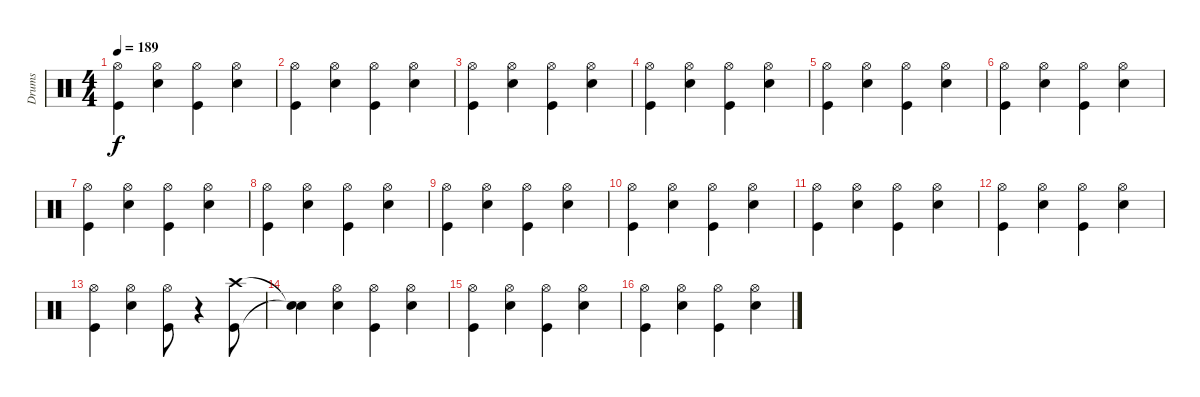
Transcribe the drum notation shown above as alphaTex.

\track ("Drums" "Drums") {instrument percussion}
\staff {score}
\articulation defaults
\ts (4 4)
\tempo 189
\clef neutral
\ks c
("Kick (hit)" "Hi-Hat (open)").4{dy f} ("Snare (hit) 2" "Hi-Hat (open)").4 ("Kick (hit)" "Hi-Hat (open)").4 ("Snare (hit) 2" "Hi-Hat (open)").4 |
("Kick (hit)" "Hi-Hat (open)").4 ("Snare (hit) 2" "Hi-Hat (open)").4 ("Kick (hit)" "Hi-Hat (open)").4 ("Snare (hit) 2" "Hi-Hat (open)").4 |
("Kick (hit)" "Hi-Hat (open)").4 ("Snare (hit) 2" "Hi-Hat (open)").4 ("Kick (hit)" "Hi-Hat (open)").4 ("Snare (hit) 2" "Hi-Hat (open)").4 |
("Kick (hit)" "Hi-Hat (open)").4 ("Snare (hit) 2" "Hi-Hat (open)").4 ("Kick (hit)" "Hi-Hat (open)").4 ("Snare (hit) 2" "Hi-Hat (open)").4 |
("Kick (hit)" "Hi-Hat (open)").4 ("Snare (hit) 2" "Hi-Hat (open)").4 ("Kick (hit)" "Hi-Hat (open)").4 ("Snare (hit) 2" "Hi-Hat (open)").4 |
("Kick (hit)" "Hi-Hat (open)").4 ("Snare (hit) 2" "Hi-Hat (open)").4 ("Kick (hit)" "Hi-Hat (open)").4 ("Snare (hit) 2" "Hi-Hat (open)").4 |
("Kick (hit)" "Hi-Hat (open)").4 ("Snare (hit) 2" "Hi-Hat (open)").4 ("Kick (hit)" "Hi-Hat (open)").4 ("Snare (hit) 2" "Hi-Hat (open)").4 |
("Kick (hit)" "Hi-Hat (open)").4 ("Snare (hit) 2" "Hi-Hat (open)").4 ("Kick (hit)" "Hi-Hat (open)").4 ("Snare (hit) 2" "Hi-Hat (open)").4 |
("Kick (hit)" "Hi-Hat (open)").4 ("Snare (hit) 2" "Hi-Hat (open)").4 ("Kick (hit)" "Hi-Hat (open)").4 ("Snare (hit) 2" "Hi-Hat (open)").4 |
("Kick (hit)" "Hi-Hat (open)").4 ("Snare (hit) 2" "Hi-Hat (open)").4 ("Kick (hit)" "Hi-Hat (open)").4 ("Snare (hit) 2" "Hi-Hat (open)").4 |
("Kick (hit)" "Hi-Hat (open)").4 ("Snare (hit) 2" "Hi-Hat (open)").4 ("Kick (hit)" "Hi-Hat (open)").4 ("Snare (hit) 2" "Hi-Hat (open)").4 |
("Kick (hit)" "Hi-Hat (open)").4 ("Snare (hit) 2" "Hi-Hat (open)").4 ("Kick (hit)" "Hi-Hat (open)").4 ("Snare (hit) 2" "Hi-Hat (open)").4 |
("Kick (hit)" "Hi-Hat (open)").4 ("Snare (hit) 2" "Hi-Hat (open)").4 ("Kick (hit)" "Hi-Hat (open)").8 r.4 ("Kick (hit)" "Crash high (hit)").8 |
("Snare (hit)"{t} "Snare (hit)"{t}).4 ("Snare (hit) 2" "Hi-Hat (open)").4 ("Kick (hit)" "Hi-Hat (open)").4 ("Snare (hit) 2" "Hi-Hat (open)").4 |
("Kick (hit)" "Hi-Hat (open)").4 ("Snare (hit) 2" "Hi-Hat (open)").4 ("Kick (hit)" "Hi-Hat (open)").4 ("Snare (hit) 2" "Hi-Hat (open)").4 |
("Kick (hit)" "Hi-Hat (open)").4 ("Snare (hit) 2" "Hi-Hat (open)").4 ("Kick (hit)" "Hi-Hat (open)").4 ("Snare (hit) 2" "Hi-Hat (open)").4
